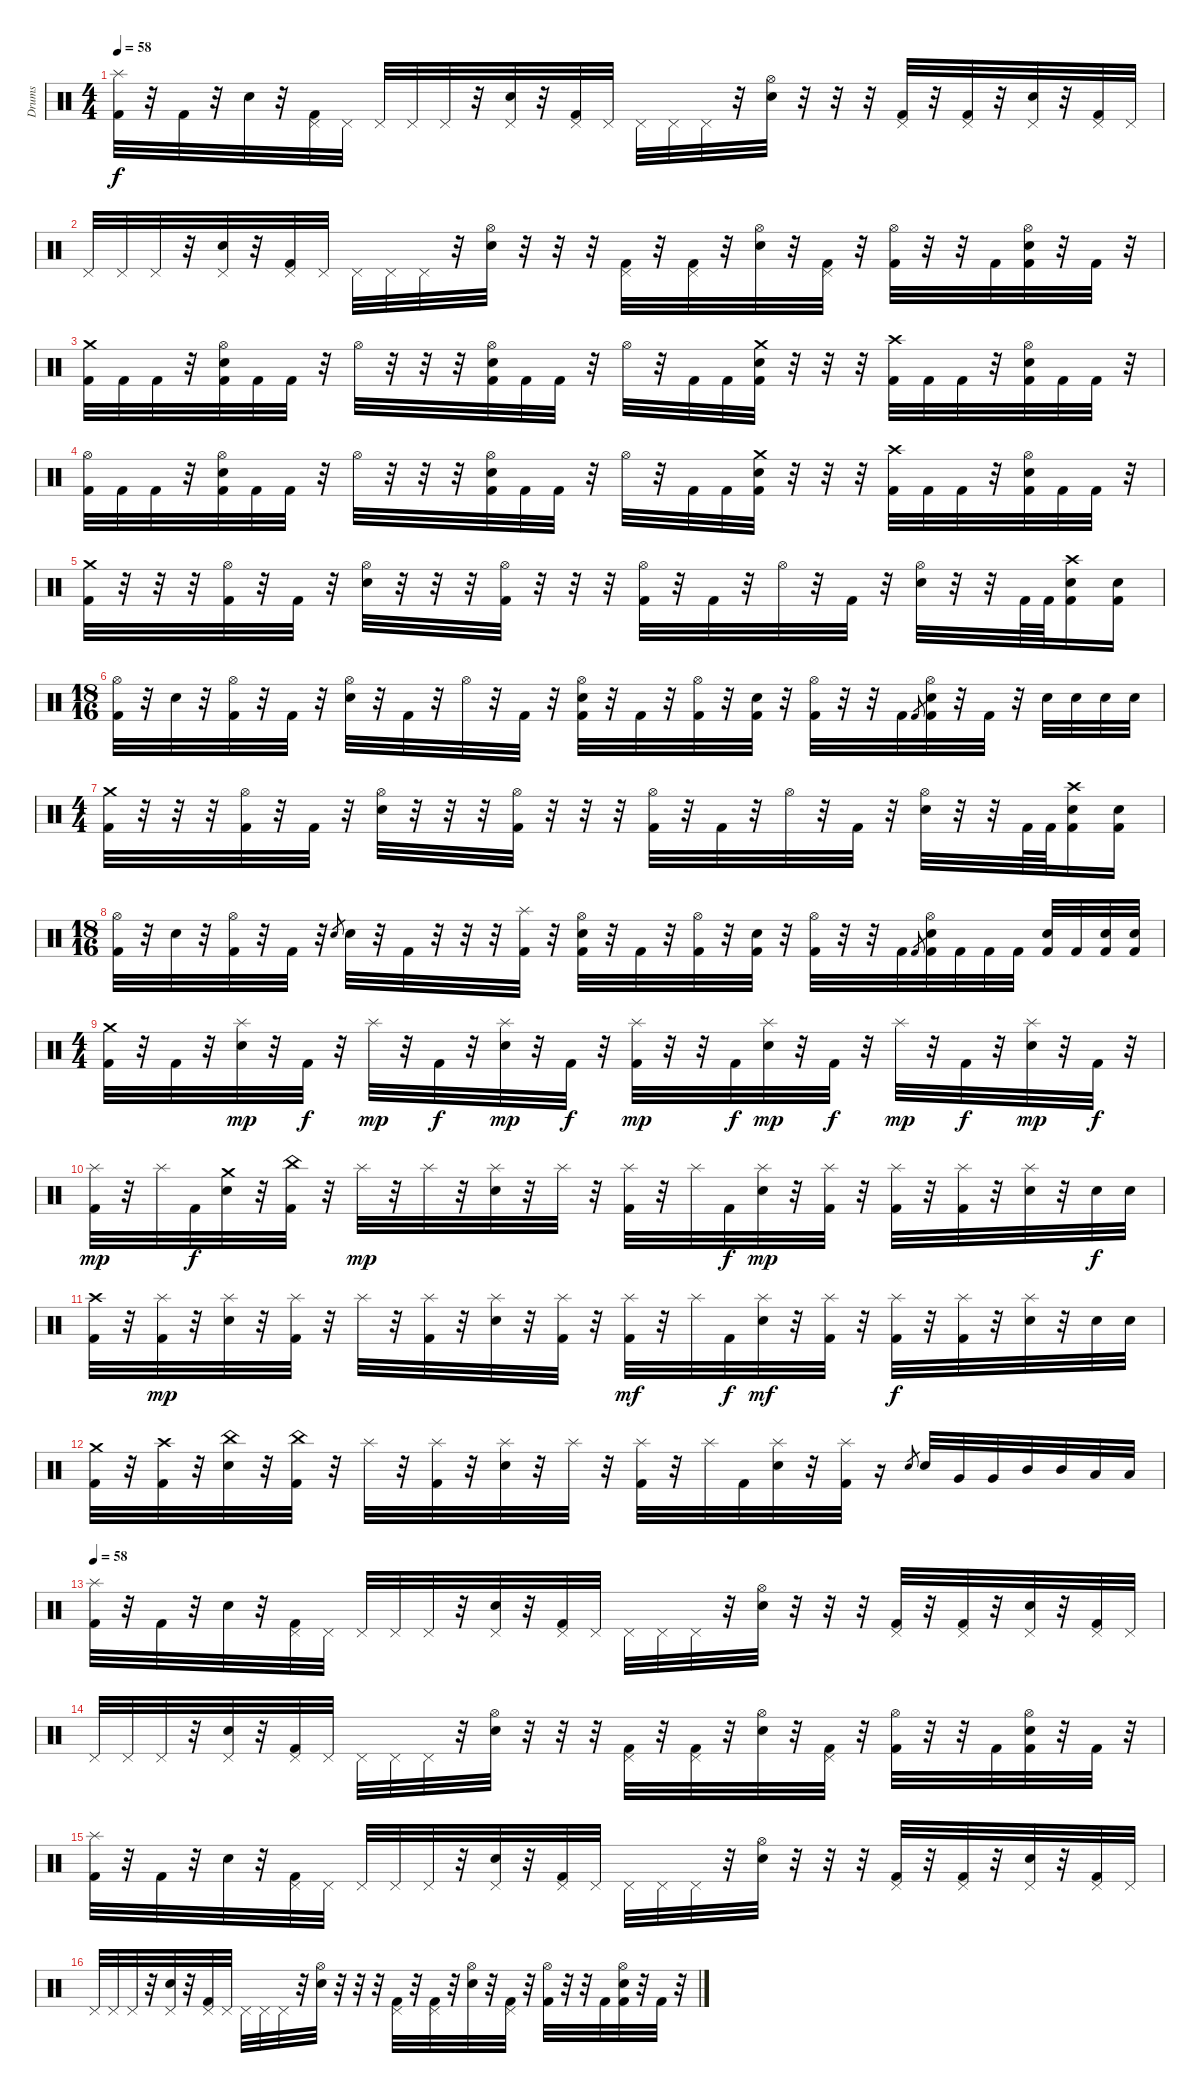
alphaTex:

\track ("Drums" "Drums") {instrument percussion}
\staff {score}
\articulation defaults
\ts (4 4)
\tempo 58
\clef neutral
\ks c
("Splash (hit)" "Kick (hit) 2").32{dy f} r.32 "Kick (hit) 2".32 r.32 "Electric Snare (hit)".32 r.32 ("Pedal Hi-Hat (hit)" "Kick (hit) 2").32 "Pedal Hi-Hat (hit)".32 "Pedal Hi-Hat (hit)".32 "Pedal Hi-Hat (hit)".32 "Pedal Hi-Hat (hit)".32 r.32 ("Pedal Hi-Hat (hit)" "Electric Snare (hit)").32 r.32 ("Pedal Hi-Hat (hit)" "Kick (hit) 2").32 "Pedal Hi-Hat (hit)".32 "Pedal Hi-Hat (hit)".32 "Pedal Hi-Hat (hit)".32 "Pedal Hi-Hat (hit)".32 r.32 ("Hi-Hat (open)" "Electric Snare (hit)").32 r.32 r.32 r.32 ("Pedal Hi-Hat (hit)" "Kick (hit) 2").32 r.32 ("Pedal Hi-Hat (hit)" "Kick (hit) 2").32 r.32 ("Pedal Hi-Hat (hit)" "Electric Snare (hit)").32 r.32 ("Pedal Hi-Hat (hit)" "Kick (hit) 2").32 "Pedal Hi-Hat (hit)".32 |
"Pedal Hi-Hat (hit)".32 "Pedal Hi-Hat (hit)".32 "Pedal Hi-Hat (hit)".32 r.32 ("Pedal Hi-Hat (hit)" "Electric Snare (hit)").32 r.32 ("Pedal Hi-Hat (hit)" "Kick (hit) 2").32 "Pedal Hi-Hat (hit)".32 "Pedal Hi-Hat (hit)".32 "Pedal Hi-Hat (hit)".32 "Pedal Hi-Hat (hit)".32 r.32 ("Hi-Hat (open)" "Electric Snare (hit)").32 r.32 r.32 r.32 ("Pedal Hi-Hat (hit)" "Kick (hit) 2").32 r.32 ("Pedal Hi-Hat (hit)" "Kick (hit) 2").32 r.32 ("Hi-Hat (open)" "Electric Snare (hit)").32 r.32 ("Pedal Hi-Hat (hit)" "Kick (hit) 2").32 r.32 ("Hi-Hat (open)" "Kick (hit) 2").32 r.32 r.32 "Kick (hit) 2".32 ("Hi-Hat (open)" "Electric Snare (hit)" "Kick (hit) 2").32 r.32 "Kick (hit) 2".32 r.32 |
("Crash medium (hit)" "Kick (hit) 2").32 "Kick (hit) 2".32 "Kick (hit) 2".32 r.32 ("Hi-Hat (open)" "Electric Snare (hit)" "Kick (hit) 2").32 "Kick (hit) 2".32 "Kick (hit) 2".32 r.32 "Hi-Hat (open)".32 r.32 r.32 r.32 ("Hi-Hat (open)" "Electric Snare (hit)" "Kick (hit) 2").32 "Kick (hit) 2".32 "Kick (hit) 2".32 r.32 "Hi-Hat (open)".32 r.32 "Kick (hit) 2".32 "Kick (hit) 2".32 ("Crash medium (hit)" "Electric Snare (hit)" "Kick (hit) 2").32 r.32 r.32 r.32 ("Crash high (hit)" "Kick (hit) 2").32 "Kick (hit) 2".32 "Kick (hit) 2".32 r.32 ("Hi-Hat (open)" "Electric Snare (hit)" "Kick (hit) 2").32 "Kick (hit) 2".32 "Kick (hit) 2".32 r.32 |
("Hi-Hat (open)" "Kick (hit) 2").32 "Kick (hit) 2".32 "Kick (hit) 2".32 r.32 ("Hi-Hat (open)" "Electric Snare (hit)" "Kick (hit) 2").32 "Kick (hit) 2".32 "Kick (hit) 2".32 r.32 "Hi-Hat (open)".32 r.32 r.32 r.32 ("Hi-Hat (open)" "Electric Snare (hit)" "Kick (hit) 2").32 "Kick (hit) 2".32 "Kick (hit) 2".32 r.32 "Hi-Hat (open)".32 r.32 "Kick (hit) 2".32 "Kick (hit) 2".32 ("Crash medium (hit)" "Electric Snare (hit)" "Kick (hit) 2").32 r.32 r.32 r.32 ("Crash high (hit)" "Kick (hit) 2").32 "Kick (hit) 2".32 "Kick (hit) 2".32 r.32 ("Hi-Hat (open)" "Electric Snare (hit)" "Kick (hit) 2").32 "Kick (hit) 2".32 "Kick (hit) 2".32 r.32 |
("Crash medium (hit)" "Kick (hit) 2").32 r.32 r.32 r.32 ("Hi-Hat (open)" "Kick (hit) 2").32 r.32 "Kick (hit) 2".32 r.32 ("Hi-Hat (open)" "Electric Snare (hit)").32 r.32 r.32 r.32 ("Hi-Hat (open)" "Kick (hit) 2").32 r.32 r.32 r.32 ("Hi-Hat (open)" "Kick (hit) 2").32 r.32 "Kick (hit) 2".32 r.32 "Hi-Hat (open)".32 r.32 "Kick (hit) 2".32 r.32 ("Hi-Hat (open)" "Electric Snare (hit)").32 r.32 r.32 "Kick (hit) 2".64 "Kick (hit) 2".64 ("Crash high (hit)" "Electric Snare (hit)" "Kick (hit) 2").16 ("Electric Snare (hit)" "Kick (hit) 2").16 |
\ts (18 16)
("Hi-Hat (open)" "Kick (hit) 2").32 r.32 "Electric Snare (hit)".32 r.32 ("Hi-Hat (open)" "Kick (hit) 2").32 r.32 "Kick (hit) 2".32 r.32 ("Hi-Hat (open)" "Electric Snare (hit)").32 r.32 "Kick (hit) 2".32 r.32 "Hi-Hat (open)".32 r.32 "Kick (hit) 2".32 r.32 ("Hi-Hat (open)" "Electric Snare (hit)" "Kick (hit) 2").32 r.32 "Kick (hit) 2".32 r.32 ("Hi-Hat (open)" "Kick (hit) 2").32 r.32 ("Electric Snare (hit)" "Kick (hit) 2").32 r.32 ("Hi-Hat (open)" "Kick (hit) 2").32 r.32 r.32 "Kick (hit) 2".32 "Kick (hit) 2".8{gr} ("Hi-Hat (open)" "Electric Snare (hit)" "Kick (hit) 2").32 r.32 "Kick (hit) 2".32 r.32 "Electric Snare (hit)".32 "Electric Snare (hit)".32 "Electric Snare (hit)".32 "Electric Snare (hit)".32 |
\ts (4 4)
("Crash medium (hit)" "Kick (hit) 2").32 r.32 r.32 r.32 ("Hi-Hat (open)" "Kick (hit) 2").32 r.32 "Kick (hit) 2".32 r.32 ("Hi-Hat (open)" "Electric Snare (hit)").32 r.32 r.32 r.32 ("Hi-Hat (open)" "Kick (hit) 2").32 r.32 r.32 r.32 ("Hi-Hat (open)" "Kick (hit) 2").32 r.32 "Kick (hit) 2".32 r.32 "Hi-Hat (open)".32 r.32 "Kick (hit) 2".32 r.32 ("Hi-Hat (open)" "Electric Snare (hit)").32 r.32 r.32 "Kick (hit) 2".64 "Kick (hit) 2".64 ("Crash high (hit)" "Electric Snare (hit)" "Kick (hit) 2").16 ("Electric Snare (hit)" "Kick (hit) 2").16 |
\ts (18 16)
("Hi-Hat (open)" "Kick (hit) 2").32 r.32 "Electric Snare (hit)".32 r.32 ("Hi-Hat (open)" "Kick (hit) 2").32 r.32 "Kick (hit) 2".32 r.32 "Electric Snare (hit)".8{gr} "Electric Snare (hit)".32 r.32 "Kick (hit) 2".32 r.32 r.32 r.32 ("Splash (hit)" "Kick (hit) 2").32 r.32 ("Hi-Hat (open)" "Electric Snare (hit)" "Kick (hit) 2").32 r.32 "Kick (hit) 2".32 r.32 ("Hi-Hat (open)" "Kick (hit) 2").32 r.32 ("Electric Snare (hit)" "Kick (hit) 2").32 r.32 ("Hi-Hat (open)" "Kick (hit) 2").32 r.32 r.32 "Kick (hit) 2".32 "Kick (hit) 2".8{gr} ("Hi-Hat (open)" "Electric Snare (hit)" "Kick (hit) 2").32 "Kick (hit) 2".32 "Kick (hit) 2".32 "Kick (hit) 2".32 ("Electric Snare (hit)" "Kick (hit) 2").32 "Kick (hit) 2".32 ("Electric Snare (hit)" "Kick (hit) 2").32 ("Electric Snare (hit)" "Kick (hit) 2").32 |
\ts (4 4)
("Crash medium (hit)" "Kick (hit) 2").32 r.32 "Kick (hit) 2".32 r.32 ("Splash (hit)" "Electric Snare (hit)").32{dy mp} r.32 "Kick (hit) 2".32{dy f} r.32 "Splash (hit)".32{dy mp} r.32 "Kick (hit) 2".32{dy f} r.32 ("Splash (hit)" "Electric Snare (hit)").32{dy mp} r.32 "Kick (hit) 2".32{dy f} r.32 ("Splash (hit)" "Kick (hit) 2").32{dy mp} r.32 r.32 "Kick (hit) 2".32{dy f} ("Splash (hit)" "Electric Snare (hit)").32{dy mp} r.32 "Kick (hit) 2".32{dy f} r.32 "Splash (hit)".32{dy mp} r.32 "Kick (hit) 2".32{dy f} r.32 ("Splash (hit)" "Electric Snare (hit)").32{dy mp} r.32 "Kick (hit) 2".32{dy f} r.32 |
("Splash (hit)" "Kick (hit) 2").32{dy mp} r.32 "Splash (hit)".32 "Kick (hit) 2".32{dy f} ("Crash medium (hit)" "Electric Snare (hit)").32 r.32 ("China (hit)" "Kick (hit) 2").32 r.32 "Splash (hit)".32{dy mp} r.32 "Splash (hit)".32 r.32 ("Splash (hit)" "Electric Snare (hit)").32 r.32 "Splash (hit)".32 r.32 ("Splash (hit)" "Kick (hit) 2").32 r.32 "Splash (hit)".32 "Kick (hit) 2".32{dy f} ("Splash (hit)" "Electric Snare (hit)").32{dy mp} r.32 ("Splash (hit)" "Kick (hit) 2").32 r.32 ("Splash (hit)" "Kick (hit) 2").32 r.32 ("Splash (hit)" "Kick (hit) 2").32 r.32 ("Splash (hit)" "Electric Snare (hit)").32 r.32 "Electric Snare (hit)".32{dy f} "Electric Snare (hit)".32 |
("Crash high (hit)" "Kick (hit) 2").32 r.32 ("Splash (hit)" "Kick (hit) 2").32{dy mp} r.32 ("Splash (hit)" "Electric Snare (hit)").32 r.32 ("Splash (hit)" "Kick (hit) 2").32 r.32 "Splash (hit)".32 r.32 ("Splash (hit)" "Kick (hit) 2").32 r.32 ("Splash (hit)" "Electric Snare (hit)").32 r.32 ("Splash (hit)" "Kick (hit) 2").32 r.32 ("Splash (hit)" "Kick (hit) 2").32{dy mf} r.32 "Splash (hit)".32 "Kick (hit) 2".32{dy f} ("Splash (hit)" "Electric Snare (hit)").32{dy mf} r.32 ("Splash (hit)" "Kick (hit) 2").32 r.32 ("Splash (hit)" "Kick (hit) 2").32{dy f} r.32 ("Splash (hit)" "Kick (hit) 2").32 r.32 ("Splash (hit)" "Electric Snare (hit)").32 r.32 "Electric Snare (hit)".32 "Electric Snare (hit)".32 |
("Crash medium (hit)" "Kick (hit) 2").32 r.32 ("Crash high (hit)" "Kick (hit) 2").32 r.32 ("China (hit)" "Electric Snare (hit)").32 r.32 ("China (hit)" "Kick (hit) 2").32 r.32 "Splash (hit)".32 r.32 ("Splash (hit)" "Kick (hit) 2").32 r.32 ("Splash (hit)" "Electric Snare (hit)").32 r.32 "Splash (hit)".32 r.32 ("Splash (hit)" "Kick (hit) 2").32 r.32 "Splash (hit)".32 "Kick (hit) 2".32 ("Splash (hit)" "Electric Snare (hit)").32 r.32 ("Splash (hit)" "Kick (hit) 2").32 r.16 "Electric Snare (hit)".8{gr} "Electric Snare (hit)".32 "Very Low Tom (hit)".32 "Very Low Tom (hit)".32 "Mid Tom (hit)".32 "Mid Tom (hit)".32 "Low Floor Tom (hit)".32 "Low Floor Tom (hit)".32 |
\tempo 58
("Splash (hit)" "Kick (hit) 2").32 r.32 "Kick (hit) 2".32 r.32 "Electric Snare (hit)".32 r.32 ("Pedal Hi-Hat (hit)" "Kick (hit) 2").32 "Pedal Hi-Hat (hit)".32 "Pedal Hi-Hat (hit)".32 "Pedal Hi-Hat (hit)".32 "Pedal Hi-Hat (hit)".32 r.32 ("Pedal Hi-Hat (hit)" "Electric Snare (hit)").32 r.32 ("Pedal Hi-Hat (hit)" "Kick (hit) 2").32 "Pedal Hi-Hat (hit)".32 "Pedal Hi-Hat (hit)".32 "Pedal Hi-Hat (hit)".32 "Pedal Hi-Hat (hit)".32 r.32 ("Hi-Hat (open)" "Electric Snare (hit)").32 r.32 r.32 r.32 ("Pedal Hi-Hat (hit)" "Kick (hit) 2").32 r.32 ("Pedal Hi-Hat (hit)" "Kick (hit) 2").32 r.32 ("Pedal Hi-Hat (hit)" "Electric Snare (hit)").32 r.32 ("Pedal Hi-Hat (hit)" "Kick (hit) 2").32 "Pedal Hi-Hat (hit)".32 |
"Pedal Hi-Hat (hit)".32 "Pedal Hi-Hat (hit)".32 "Pedal Hi-Hat (hit)".32 r.32 ("Pedal Hi-Hat (hit)" "Electric Snare (hit)").32 r.32 ("Pedal Hi-Hat (hit)" "Kick (hit) 2").32 "Pedal Hi-Hat (hit)".32 "Pedal Hi-Hat (hit)".32 "Pedal Hi-Hat (hit)".32 "Pedal Hi-Hat (hit)".32 r.32 ("Hi-Hat (open)" "Electric Snare (hit)").32 r.32 r.32 r.32 ("Pedal Hi-Hat (hit)" "Kick (hit) 2").32 r.32 ("Pedal Hi-Hat (hit)" "Kick (hit) 2").32 r.32 ("Hi-Hat (open)" "Electric Snare (hit)").32 r.32 ("Pedal Hi-Hat (hit)" "Kick (hit) 2").32 r.32 ("Hi-Hat (open)" "Kick (hit) 2").32 r.32 r.32 "Kick (hit) 2".32 ("Hi-Hat (open)" "Electric Snare (hit)" "Kick (hit) 2").32 r.32 "Kick (hit) 2".32 r.32 |
("Splash (hit)" "Kick (hit) 2").32 r.32 "Kick (hit) 2".32 r.32 "Electric Snare (hit)".32 r.32 ("Pedal Hi-Hat (hit)" "Kick (hit) 2").32 "Pedal Hi-Hat (hit)".32 "Pedal Hi-Hat (hit)".32 "Pedal Hi-Hat (hit)".32 "Pedal Hi-Hat (hit)".32 r.32 ("Pedal Hi-Hat (hit)" "Electric Snare (hit)").32 r.32 ("Pedal Hi-Hat (hit)" "Kick (hit) 2").32 "Pedal Hi-Hat (hit)".32 "Pedal Hi-Hat (hit)".32 "Pedal Hi-Hat (hit)".32 "Pedal Hi-Hat (hit)".32 r.32 ("Hi-Hat (open)" "Electric Snare (hit)").32 r.32 r.32 r.32 ("Pedal Hi-Hat (hit)" "Kick (hit) 2").32 r.32 ("Pedal Hi-Hat (hit)" "Kick (hit) 2").32 r.32 ("Pedal Hi-Hat (hit)" "Electric Snare (hit)").32 r.32 ("Pedal Hi-Hat (hit)" "Kick (hit) 2").32 "Pedal Hi-Hat (hit)".32 |
"Pedal Hi-Hat (hit)".32 "Pedal Hi-Hat (hit)".32 "Pedal Hi-Hat (hit)".32 r.32 ("Pedal Hi-Hat (hit)" "Electric Snare (hit)").32 r.32 ("Pedal Hi-Hat (hit)" "Kick (hit) 2").32 "Pedal Hi-Hat (hit)".32 "Pedal Hi-Hat (hit)".32 "Pedal Hi-Hat (hit)".32 "Pedal Hi-Hat (hit)".32 r.32 ("Hi-Hat (open)" "Electric Snare (hit)").32 r.32 r.32 r.32 ("Pedal Hi-Hat (hit)" "Kick (hit) 2").32 r.32 ("Pedal Hi-Hat (hit)" "Kick (hit) 2").32 r.32 ("Hi-Hat (open)" "Electric Snare (hit)").32 r.32 ("Pedal Hi-Hat (hit)" "Kick (hit) 2").32 r.32 ("Hi-Hat (open)" "Kick (hit) 2").32 r.32 r.32 "Kick (hit) 2".32 ("Hi-Hat (open)" "Electric Snare (hit)" "Kick (hit) 2").32 r.32 "Kick (hit) 2".32 r.32
